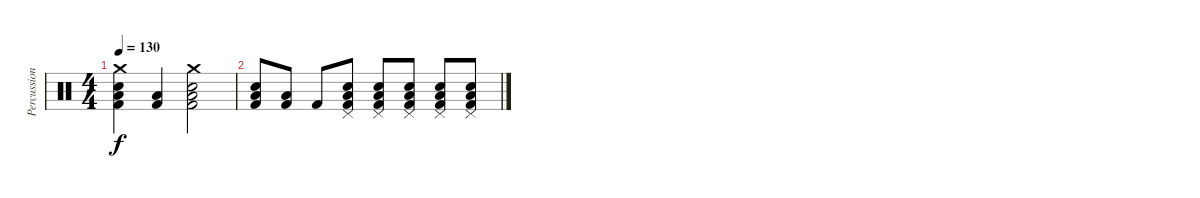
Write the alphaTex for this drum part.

\track ("Percussion" "Percussion") {instrument percussion}
\staff {score}
\articulation defaults
\ts (4 4)
\tempo 130
\clef neutral
\ks c
("Crash medium (hit)" "Electric Snare (hit)" "Low Tom (hit)" "Kick (hit) 2").4{dy f} ("Low Tom (hit)" "Kick (hit) 2").4 ("Crash medium (hit)" "Electric Snare (hit)" "Low Tom (hit)" "Kick (hit) 2").2 |
("Electric Snare (hit)" "Low Tom (hit)" "Kick (hit) 2").8 ("Low Tom (hit)" "Kick (hit) 2").8 "Kick (hit) 2".8 ("Pedal Hi-Hat (hit)" "Electric Snare (hit)" "Low Tom (hit)" "Kick (hit) 2").8 ("Pedal Hi-Hat (hit)" "Electric Snare (hit)" "Low Tom (hit)" "Kick (hit) 2").8 ("Pedal Hi-Hat (hit)" "Electric Snare (hit)" "Low Tom (hit)" "Kick (hit) 2").8 ("Pedal Hi-Hat (hit)" "Electric Snare (hit)" "Low Tom (hit)" "Kick (hit) 2").8 ("Pedal Hi-Hat (hit)" "Electric Snare (hit)" "Low Tom (hit)" "Kick (hit) 2").8
